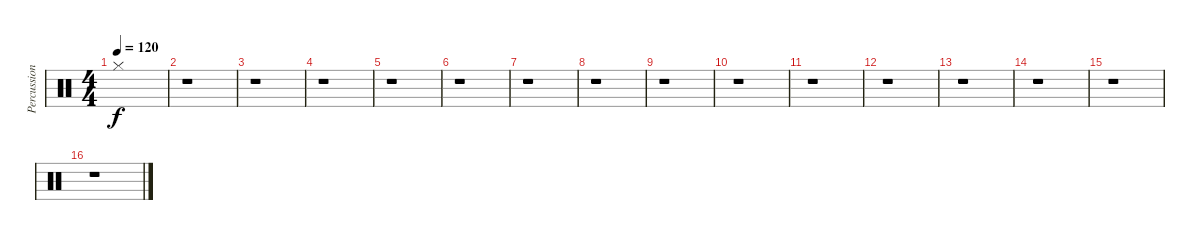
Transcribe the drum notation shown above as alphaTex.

\track ("Percussions" "Percussion") {instrument percussion}
\staff {score}
\articulation defaults
\ts (4 4)
\tempo 120
\clef neutral
\ks c "Hi-Hat (closed)".1{dy f}
|
r.1 |
r.1 |
r.1 |
r.1 |
r.1 |
r.1 |
r.1 |
r.1 |
r.1 |
r.1 |
r.1 |
r.1 |
r.1 |
r.1 |
r.1
